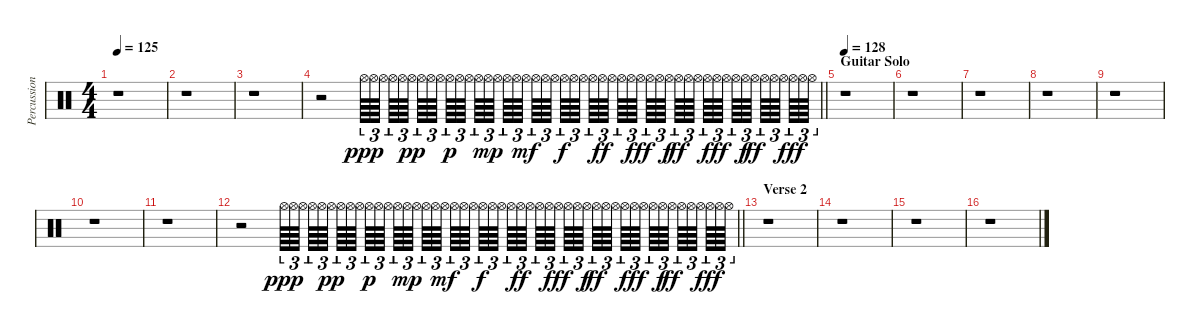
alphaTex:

\track ("Percussion" "Percussion") {instrument percussion}
\staff {score}
\articulation defaults
\ts (4 4)
\tempo 125
\clef neutral
\ks c
r.1{dy fff} |
r.1 |
r.1 |
\barLineRight lightlight
r.2 "Hi-Hat (open)".64{tu (3 2) dy ppp} "Hi-Hat (open)".64{tu (3 2)} "Hi-Hat (open)".64{tu (3 2)} "Hi-Hat (open)".64{tu (3 2)} "Hi-Hat (open)".64{tu (3 2)} "Hi-Hat (open)".64{tu (3 2) dy pp} "Hi-Hat (open)".64{tu (3 2)} "Hi-Hat (open)".64{tu (3 2)} "Hi-Hat (open)".64{tu (3 2)} "Hi-Hat (open)".64{tu (3 2) dy p} "Hi-Hat (open)".64{tu (3 2)} "Hi-Hat (open)".64{tu (3 2)} "Hi-Hat (open)".64{tu (3 2)} "Hi-Hat (open)".64{tu (3 2) dy mp} "Hi-Hat (open)".64{tu (3 2)} "Hi-Hat (open)".64{tu (3 2)} "Hi-Hat (open)".64{tu (3 2)} "Hi-Hat (open)".64{tu (3 2) dy mf} "Hi-Hat (open)".64{tu (3 2)} "Hi-Hat (open)".64{tu (3 2)} "Hi-Hat (open)".64{tu (3 2)} "Hi-Hat (open)".64{tu (3 2) dy f} "Hi-Hat (open)".64{tu (3 2)} "Hi-Hat (open)".64{tu (3 2)} "Hi-Hat (open)".64{tu (3 2)} "Hi-Hat (open)".64{tu (3 2) dy ff} "Hi-Hat (open)".64{tu (3 2)} "Hi-Hat (open)".64{tu (3 2)} "Hi-Hat (open)".64{tu (3 2)} "Hi-Hat (open)".64{tu (3 2) dy fff} "Hi-Hat (open)".64{tu (3 2)} "Hi-Hat (open)".64{tu (3 2)} "Hi-Hat (open)".64{tu (3 2) dy f} "Hi-Hat (open)".64{tu (3 2) dy ff} "Hi-Hat (open)".64{tu (3 2)} "Hi-Hat (open)".64{tu (3 2)} "Hi-Hat (open)".64{tu (3 2)} "Hi-Hat (open)".64{tu (3 2) dy fff} "Hi-Hat (open)".64{tu (3 2)} "Hi-Hat (open)".64{tu (3 2)} "Hi-Hat (open)".64{tu (3 2) dy f} "Hi-Hat (open)".64{tu (3 2) dy ff} "Hi-Hat (open)".64{tu (3 2)} "Hi-Hat (open)".64{tu (3 2)} "Hi-Hat (open)".64{tu (3 2)} "Hi-Hat (open)".64{tu (3 2) dy fff} "Hi-Hat (open)".64{tu (3 2)} "Hi-Hat (open)".64{tu (3 2)} |
\section ("" "Guitar Solo")
\tempo 128
r.1 |
r.1 |
r.1 |
r.1 |
r.1 |
r.1 |
r.1 |
\barLineRight lightlight
r.2 "Hi-Hat (open)".64{tu (3 2) dy ppp} "Hi-Hat (open)".64{tu (3 2)} "Hi-Hat (open)".64{tu (3 2)} "Hi-Hat (open)".64{tu (3 2)} "Hi-Hat (open)".64{tu (3 2)} "Hi-Hat (open)".64{tu (3 2) dy pp} "Hi-Hat (open)".64{tu (3 2)} "Hi-Hat (open)".64{tu (3 2)} "Hi-Hat (open)".64{tu (3 2)} "Hi-Hat (open)".64{tu (3 2) dy p} "Hi-Hat (open)".64{tu (3 2)} "Hi-Hat (open)".64{tu (3 2)} "Hi-Hat (open)".64{tu (3 2)} "Hi-Hat (open)".64{tu (3 2) dy mp} "Hi-Hat (open)".64{tu (3 2)} "Hi-Hat (open)".64{tu (3 2)} "Hi-Hat (open)".64{tu (3 2)} "Hi-Hat (open)".64{tu (3 2) dy mf} "Hi-Hat (open)".64{tu (3 2)} "Hi-Hat (open)".64{tu (3 2)} "Hi-Hat (open)".64{tu (3 2)} "Hi-Hat (open)".64{tu (3 2) dy f} "Hi-Hat (open)".64{tu (3 2)} "Hi-Hat (open)".64{tu (3 2)} "Hi-Hat (open)".64{tu (3 2)} "Hi-Hat (open)".64{tu (3 2) dy ff} "Hi-Hat (open)".64{tu (3 2)} "Hi-Hat (open)".64{tu (3 2)} "Hi-Hat (open)".64{tu (3 2)} "Hi-Hat (open)".64{tu (3 2) dy fff} "Hi-Hat (open)".64{tu (3 2)} "Hi-Hat (open)".64{tu (3 2)} "Hi-Hat (open)".64{tu (3 2) dy f} "Hi-Hat (open)".64{tu (3 2) dy ff} "Hi-Hat (open)".64{tu (3 2)} "Hi-Hat (open)".64{tu (3 2)} "Hi-Hat (open)".64{tu (3 2)} "Hi-Hat (open)".64{tu (3 2) dy fff} "Hi-Hat (open)".64{tu (3 2)} "Hi-Hat (open)".64{tu (3 2)} "Hi-Hat (open)".64{tu (3 2) dy f} "Hi-Hat (open)".64{tu (3 2) dy ff} "Hi-Hat (open)".64{tu (3 2)} "Hi-Hat (open)".64{tu (3 2)} "Hi-Hat (open)".64{tu (3 2)} "Hi-Hat (open)".64{tu (3 2) dy fff} "Hi-Hat (open)".64{tu (3 2)} "Hi-Hat (open)".64{tu (3 2)} |
\section ("" "Verse 2")
r.1 |
r.1 |
r.1 |
r.1
